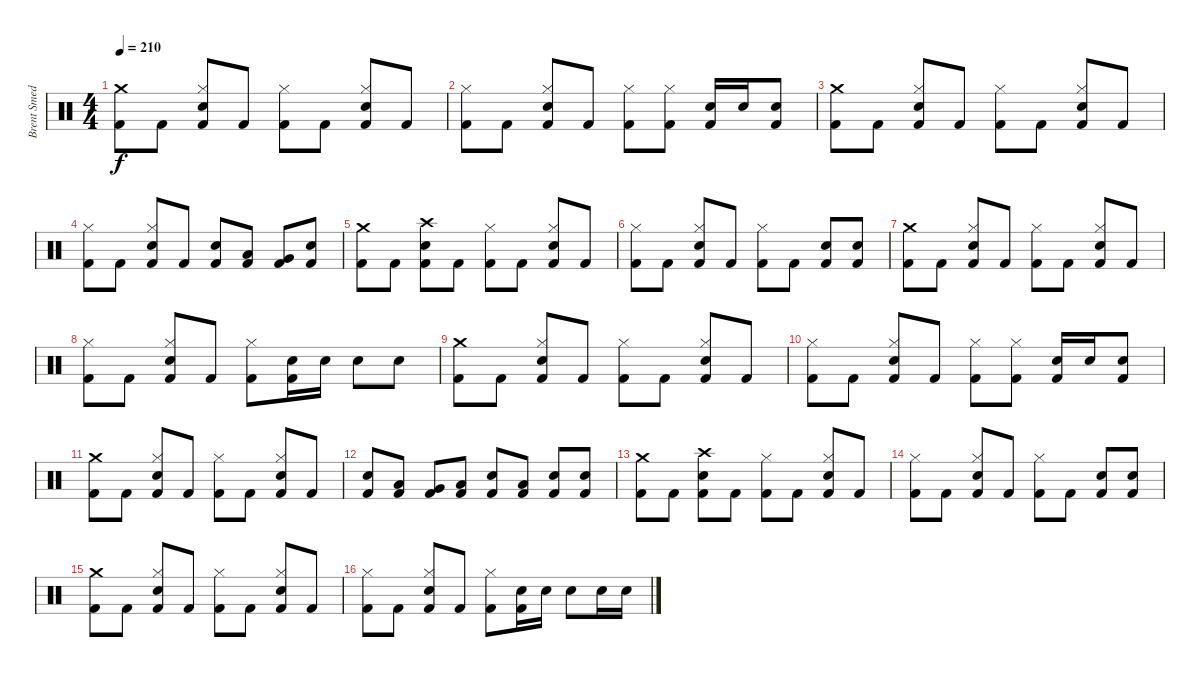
\track ("Brent Smedley" "Brent Smed") {instrument percussion}
\staff {score}
\articulation defaults
\ts (4 4)
\tempo 210
\clef neutral
\ks c
("Crash medium (hit)" "Kick (hit) 2").8{dy f} "Kick (hit) 2".8 ("Hi-Hat (closed)" "Electric Snare (hit)" "Kick (hit) 2").8 "Kick (hit) 2".8 ("Hi-Hat (closed)" "Kick (hit) 2").8 "Kick (hit) 2".8 ("Hi-Hat (closed)" "Electric Snare (hit)" "Kick (hit) 2").8 "Kick (hit) 2".8 |
("Hi-Hat (closed)" "Kick (hit) 2").8 "Kick (hit) 2".8 ("Hi-Hat (closed)" "Electric Snare (hit)" "Kick (hit) 2").8 "Kick (hit) 2".8 ("Hi-Hat (closed)" "Kick (hit) 2").8 ("Hi-Hat (closed)" "Kick (hit) 2").8 ("Electric Snare (hit)" "Kick (hit) 2").16 "Electric Snare (hit)".16 ("Electric Snare (hit)" "Kick (hit) 2").8 |
("Crash medium (hit)" "Kick (hit) 2").8 "Kick (hit) 2".8 ("Hi-Hat (closed)" "Electric Snare (hit)" "Kick (hit) 2").8 "Kick (hit) 2".8 ("Hi-Hat (closed)" "Kick (hit) 2").8 "Kick (hit) 2".8 ("Hi-Hat (closed)" "Electric Snare (hit)" "Kick (hit) 2").8 "Kick (hit) 2".8 |
("Hi-Hat (closed)" "Kick (hit) 2").8 "Kick (hit) 2".8 ("Hi-Hat (closed)" "Electric Snare (hit)" "Kick (hit) 2").8 "Kick (hit) 2".8 ("Electric Snare (hit)" "Kick (hit) 2").8 ("Low Tom (hit)" "Kick (hit) 2").8 ("Very Low Tom (hit)" "Kick (hit) 2").8 ("Electric Snare (hit)" "Kick (hit) 2").8 |
("Crash medium (hit)" "Kick (hit) 2").8 "Kick (hit) 2".8 ("Crash high (hit)" "Electric Snare (hit)" "Kick (hit) 2").8 "Kick (hit) 2".8 ("Hi-Hat (closed)" "Kick (hit) 2").8 "Kick (hit) 2".8 ("Hi-Hat (closed)" "Electric Snare (hit)" "Kick (hit) 2").8 "Kick (hit) 2".8 |
("Hi-Hat (closed)" "Kick (hit) 2").8 "Kick (hit) 2".8 ("Hi-Hat (closed)" "Electric Snare (hit)" "Kick (hit) 2").8 "Kick (hit) 2".8 ("Hi-Hat (closed)" "Kick (hit) 2").8 "Kick (hit) 2".8 ("Electric Snare (hit)" "Kick (hit) 2").8 ("Electric Snare (hit)" "Kick (hit) 2").8 |
("Crash medium (hit)" "Kick (hit) 2").8 "Kick (hit) 2".8 ("Hi-Hat (closed)" "Electric Snare (hit)" "Kick (hit) 2").8 "Kick (hit) 2".8 ("Hi-Hat (closed)" "Kick (hit) 2").8 "Kick (hit) 2".8 ("Hi-Hat (closed)" "Electric Snare (hit)" "Kick (hit) 2").8 "Kick (hit) 2".8 |
("Hi-Hat (closed)" "Kick (hit) 2").8 "Kick (hit) 2".8 ("Hi-Hat (closed)" "Electric Snare (hit)" "Kick (hit) 2").8 "Kick (hit) 2".8 ("Hi-Hat (closed)" "Kick (hit) 2").8 ("Electric Snare (hit)" "Kick (hit) 2").16 "Electric Snare (hit)".16 "Electric Snare (hit)".8 "Electric Snare (hit)".8 |
("Crash medium (hit)" "Kick (hit) 2").8 "Kick (hit) 2".8 ("Hi-Hat (closed)" "Electric Snare (hit)" "Kick (hit) 2").8 "Kick (hit) 2".8 ("Hi-Hat (closed)" "Kick (hit) 2").8 "Kick (hit) 2".8 ("Hi-Hat (closed)" "Electric Snare (hit)" "Kick (hit) 2").8 "Kick (hit) 2".8 |
("Hi-Hat (closed)" "Kick (hit) 2").8 "Kick (hit) 2".8 ("Hi-Hat (closed)" "Electric Snare (hit)" "Kick (hit) 2").8 "Kick (hit) 2".8 ("Hi-Hat (closed)" "Kick (hit) 2").8 ("Hi-Hat (closed)" "Kick (hit) 2").8 ("Electric Snare (hit)" "Kick (hit) 2").16 "Electric Snare (hit)".16 ("Electric Snare (hit)" "Kick (hit) 2").8 |
("Crash medium (hit)" "Kick (hit) 2").8 "Kick (hit) 2".8 ("Hi-Hat (closed)" "Electric Snare (hit)" "Kick (hit) 2").8 "Kick (hit) 2".8 ("Hi-Hat (closed)" "Kick (hit) 2").8 "Kick (hit) 2".8 ("Hi-Hat (closed)" "Electric Snare (hit)" "Kick (hit) 2").8 "Kick (hit) 2".8 |
("Electric Snare (hit)" "Kick (hit) 2").8 ("Low Tom (hit)" "Kick (hit) 2").8 ("Very Low Tom (hit)" "Kick (hit) 2").8 ("Low Floor Tom (hit)" "Kick (hit) 2").8 ("Electric Snare (hit)" "Kick (hit) 2").8 ("Low Tom (hit)" "Kick (hit) 2").8 ("Electric Snare (hit)" "Kick (hit) 2").8 ("Electric Snare (hit)" "Kick (hit) 2").8 |
("Crash medium (hit)" "Kick (hit) 2").8 "Kick (hit) 2".8 ("Crash high (hit)" "Electric Snare (hit)" "Kick (hit) 2").8 "Kick (hit) 2".8 ("Hi-Hat (closed)" "Kick (hit) 2").8 "Kick (hit) 2".8 ("Hi-Hat (closed)" "Electric Snare (hit)" "Kick (hit) 2").8 "Kick (hit) 2".8 |
("Hi-Hat (closed)" "Kick (hit) 2").8 "Kick (hit) 2".8 ("Hi-Hat (closed)" "Electric Snare (hit)" "Kick (hit) 2").8 "Kick (hit) 2".8 ("Hi-Hat (closed)" "Kick (hit) 2").8 "Kick (hit) 2".8 ("Electric Snare (hit)" "Kick (hit) 2").8 ("Electric Snare (hit)" "Kick (hit) 2").8 |
("Crash medium (hit)" "Kick (hit) 2").8 "Kick (hit) 2".8 ("Hi-Hat (closed)" "Electric Snare (hit)" "Kick (hit) 2").8 "Kick (hit) 2".8 ("Hi-Hat (closed)" "Kick (hit) 2").8 "Kick (hit) 2".8 ("Hi-Hat (closed)" "Electric Snare (hit)" "Kick (hit) 2").8 "Kick (hit) 2".8 |
("Hi-Hat (closed)" "Kick (hit) 2").8 "Kick (hit) 2".8 ("Hi-Hat (closed)" "Electric Snare (hit)" "Kick (hit) 2").8 "Kick (hit) 2".8 ("Hi-Hat (closed)" "Kick (hit) 2").8 ("Electric Snare (hit)" "Kick (hit) 2").16 "Electric Snare (hit)".16 "Electric Snare (hit)".8 "Electric Snare (hit)".16 "Electric Snare (hit)".16
